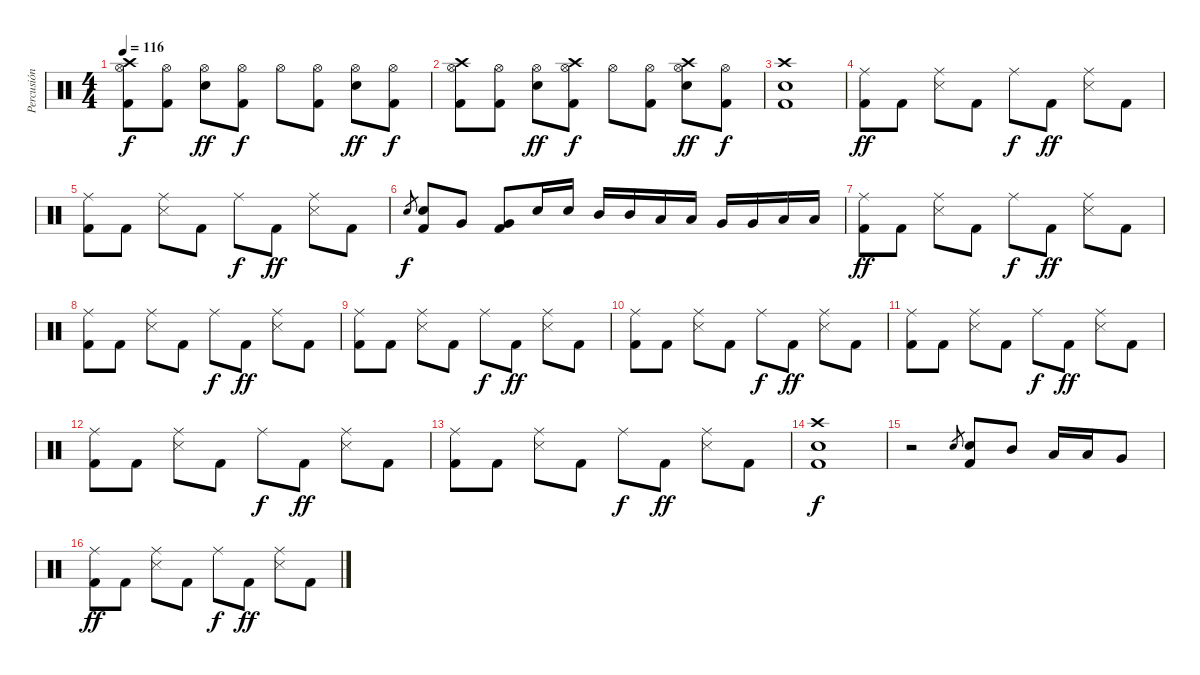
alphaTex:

\track ("Percusión" "Percusión") {instrument percussion}
\staff {score}
\articulation defaults
\ts (4 4)
\tempo 116
\clef neutral
\ks c
("Crash high (hit)" "Hi-Hat (open)" "Kick (hit) 2").8{dy f} ("Hi-Hat (open)" "Kick (hit) 2").8 ("Hi-Hat (open)" "Snare (hit) 2").8{dy ff} ("Hi-Hat (open)" "Kick (hit) 2").8{dy f} "Hi-Hat (open)".8 ("Hi-Hat (open)" "Kick (hit) 2").8 ("Hi-Hat (open)" "Snare (hit) 2").8{dy ff} ("Hi-Hat (open)" "Kick (hit) 2").8{dy f} |
("Crash high (hit)" "Hi-Hat (open)" "Kick (hit) 2").8 ("Hi-Hat (open)" "Kick (hit) 2").8 ("Hi-Hat (open)" "Snare (hit) 2").8{dy ff} ("Crash high (hit)" "Hi-Hat (open)" "Kick (hit) 2").8{dy f} "Hi-Hat (open)".8 ("Hi-Hat (open)" "Kick (hit) 2").8 ("Crash high (hit)" "Hi-Hat (open)" "Snare (hit) 2").8{dy ff} ("Hi-Hat (open)" "Kick (hit) 2").8{dy f} |
("Crash high (hit)" "Snare (hit) 2" "Kick (hit) 2").1 |
("Ride (middle)" "Kick (hit) 2").8{dy ff} "Kick (hit) 2".8 ("Ride (middle)" "Snare (side stick) 3").8 "Kick (hit) 2".8 "Ride (middle)".8{dy f} "Kick (hit) 2".8{dy ff} ("Ride (middle)" "Snare (side stick) 3").8 "Kick (hit) 2".8 |
("Ride (middle)" "Kick (hit) 2").8 "Kick (hit) 2".8 ("Ride (middle)" "Snare (side stick) 3").8 "Kick (hit) 2".8 "Ride (middle)".8{dy f} "Kick (hit) 2".8{dy ff} ("Ride (middle)" "Snare (side stick) 3").8 "Kick (hit) 2".8 |
"Snare (hit) 2".8{gr dy f} ("Snare (hit) 2" "Kick (hit) 2").8 "Very Low Tom (hit)".8 ("Very Low Tom (hit)" "Kick (hit) 2").8 "Snare (hit) 2".16 "Snare (hit) 2".16 "Mid Tom (hit)".16 "Mid Tom (hit)".16 "Low Tom (hit)".16 "Low Tom (hit)".16 "Very Low Tom (hit)".16 "Very Low Tom (hit)".16 "Low Floor Tom (hit)".16 "Low Floor Tom (hit)".16 |
("Ride (middle)" "Kick (hit) 2").8{dy ff} "Kick (hit) 2".8 ("Ride (middle)" "Snare (side stick) 3").8 "Kick (hit) 2".8 "Ride (middle)".8{dy f} "Kick (hit) 2".8{dy ff} ("Ride (middle)" "Snare (side stick) 3").8 "Kick (hit) 2".8 |
("Ride (middle)" "Kick (hit) 2").8 "Kick (hit) 2".8 ("Ride (middle)" "Snare (side stick) 3").8 "Kick (hit) 2".8 "Ride (middle)".8{dy f} "Kick (hit) 2".8{dy ff} ("Ride (middle)" "Snare (side stick) 3").8 "Kick (hit) 2".8 |
("Ride (middle)" "Kick (hit) 2").8 "Kick (hit) 2".8 ("Ride (middle)" "Snare (side stick) 3").8 "Kick (hit) 2".8 "Ride (middle)".8{dy f} "Kick (hit) 2".8{dy ff} ("Ride (middle)" "Snare (side stick) 3").8 "Kick (hit) 2".8 |
("Ride (middle)" "Kick (hit) 2").8 "Kick (hit) 2".8 ("Ride (middle)" "Snare (side stick) 3").8 "Kick (hit) 2".8 "Ride (middle)".8{dy f} "Kick (hit) 2".8{dy ff} ("Ride (middle)" "Snare (side stick) 3").8 "Kick (hit) 2".8 |
("Ride (middle)" "Kick (hit) 2").8 "Kick (hit) 2".8 ("Ride (middle)" "Snare (side stick) 3").8 "Kick (hit) 2".8 "Ride (middle)".8{dy f} "Kick (hit) 2".8{dy ff} ("Ride (middle)" "Snare (side stick) 3").8 "Kick (hit) 2".8 |
("Ride (middle)" "Kick (hit) 2").8 "Kick (hit) 2".8 ("Ride (middle)" "Snare (side stick) 3").8 "Kick (hit) 2".8 "Ride (middle)".8{dy f} "Kick (hit) 2".8{dy ff} ("Ride (middle)" "Snare (side stick) 3").8 "Kick (hit) 2".8 |
("Ride (middle)" "Kick (hit) 2").8 "Kick (hit) 2".8 ("Ride (middle)" "Snare (side stick) 3").8 "Kick (hit) 2".8 "Ride (middle)".8{dy f} "Kick (hit) 2".8{dy ff} ("Ride (middle)" "Snare (side stick) 3").8 "Kick (hit) 2".8 |
("Crash high (hit)" "Electric Snare (hit)" "Kick (hit) 2").1{dy f} |
r.2 "Snare (hit) 2".8{gr} ("Snare (hit) 2" "Kick (hit) 2").8 "Mid Tom (hit)".8 "Low Tom (hit)".16 "Low Tom (hit)".16 "Very Low Tom (hit)".8 |
("Ride (middle)" "Kick (hit) 2").8{dy ff} "Kick (hit) 2".8 ("Ride (middle)" "Snare (side stick) 3").8 "Kick (hit) 2".8 "Ride (middle)".8{dy f} "Kick (hit) 2".8{dy ff} ("Ride (middle)" "Snare (side stick) 3").8 "Kick (hit) 2".8
